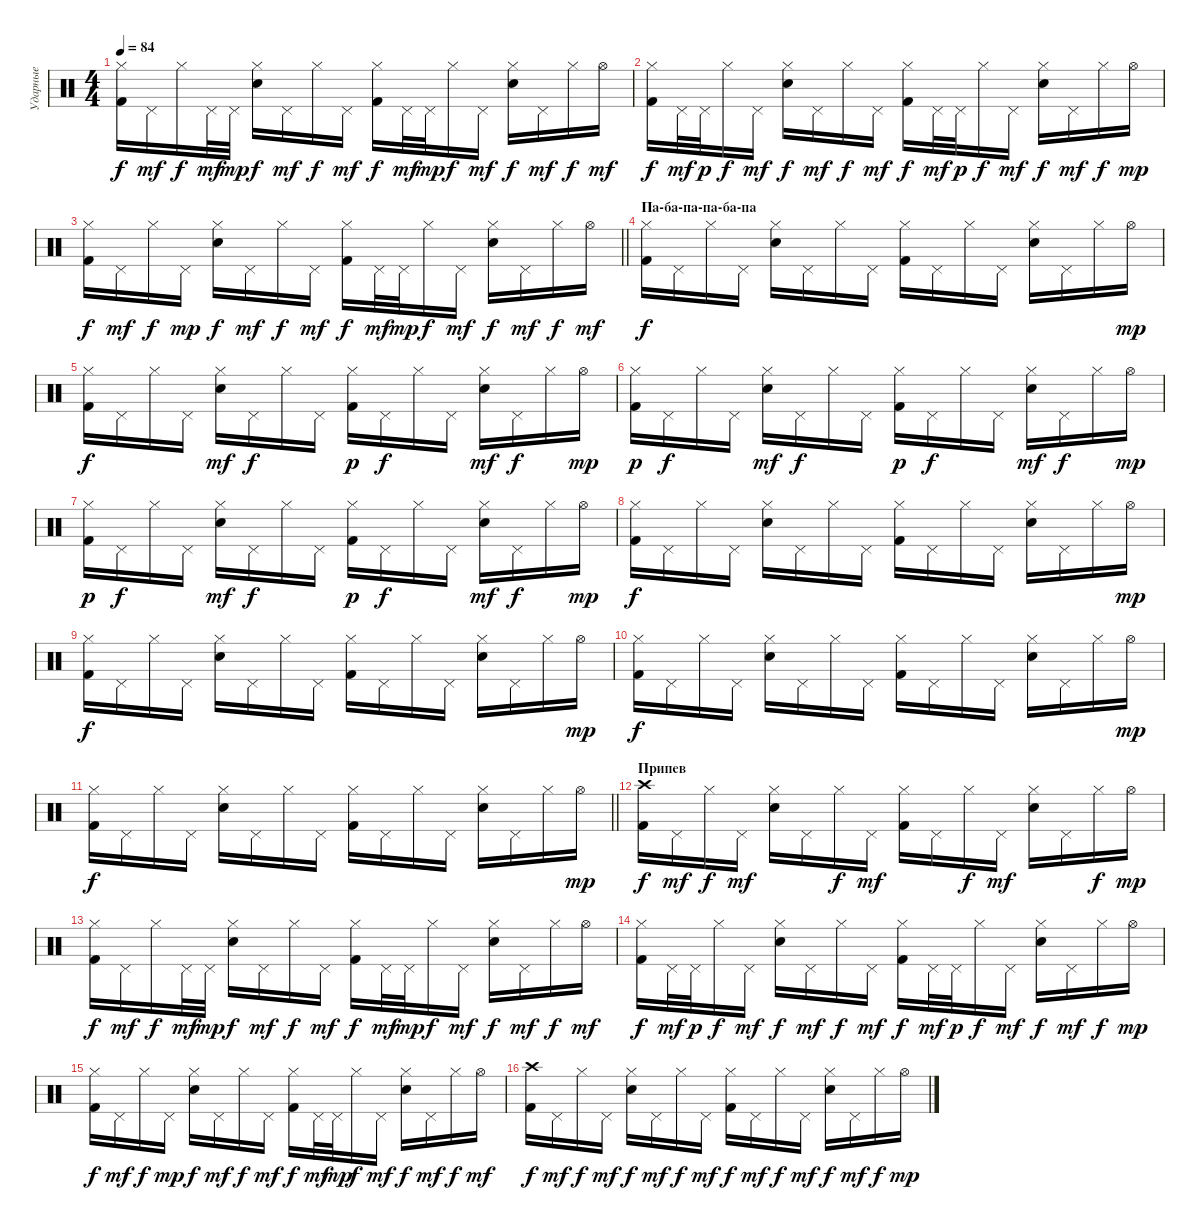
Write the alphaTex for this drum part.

\track ("Ударные" "Ударные") {instrument percussion}
\staff {score}
\articulation defaults
\ts (4 4)
\tempo 84
\clef neutral
\ks c
("Hi-Hat (closed)" "Kick (hit) 2").16{dy f} "Pedal Hi-Hat (hit)".16{dy mf} "Hi-Hat (closed)".16{dy f} "Pedal Hi-Hat (hit)".32{dy mf} "Pedal Hi-Hat (hit)".32{dy mp} ("Hi-Hat (closed)" "Electric Snare (hit)").16{dy f} "Pedal Hi-Hat (hit)".16{dy mf} "Hi-Hat (closed)".16{dy f} "Pedal Hi-Hat (hit)".16{dy mf} ("Hi-Hat (closed)" "Kick (hit) 2").16{dy f} "Pedal Hi-Hat (hit)".32{dy mf} "Pedal Hi-Hat (hit)".32{dy mp} "Hi-Hat (closed)".16{dy f} "Pedal Hi-Hat (hit)".16{dy mf} ("Hi-Hat (closed)" "Electric Snare (hit)").16{dy f} "Pedal Hi-Hat (hit)".16{dy mf} "Hi-Hat (closed)".16{dy f} "Hi-Hat (open)".16{dy mf} |
("Hi-Hat (closed)" "Kick (hit) 2").16{dy f} "Pedal Hi-Hat (hit)".32{dy mf} "Pedal Hi-Hat (hit)".32{dy p} "Hi-Hat (closed)".16{dy f} "Pedal Hi-Hat (hit)".16{dy mf} ("Hi-Hat (closed)" "Electric Snare (hit)").16{dy f} "Pedal Hi-Hat (hit)".16{dy mf} "Hi-Hat (closed)".16{dy f} "Pedal Hi-Hat (hit)".16{dy mf} ("Hi-Hat (closed)" "Kick (hit) 2").16{dy f} "Pedal Hi-Hat (hit)".32{dy mf} "Pedal Hi-Hat (hit)".32{dy p} "Hi-Hat (closed)".16{dy f} "Pedal Hi-Hat (hit)".16{dy mf} ("Hi-Hat (closed)" "Electric Snare (hit)").16{dy f} "Pedal Hi-Hat (hit)".16{dy mf} "Hi-Hat (closed)".16{dy f} "Hi-Hat (open)".16{dy mp} |
\barLineRight lightlight
("Hi-Hat (closed)" "Kick (hit) 2").16{dy f} "Pedal Hi-Hat (hit)".16{dy mf} "Hi-Hat (closed)".16{dy f} "Pedal Hi-Hat (hit)".16{dy mp} ("Hi-Hat (closed)" "Electric Snare (hit)").16{dy f} "Pedal Hi-Hat (hit)".16{dy mf} "Hi-Hat (closed)".16{dy f} "Pedal Hi-Hat (hit)".16{dy mf} ("Hi-Hat (closed)" "Kick (hit) 2").16{dy f} "Pedal Hi-Hat (hit)".32{dy mf} "Pedal Hi-Hat (hit)".32{dy mp} "Hi-Hat (closed)".16{dy f} "Pedal Hi-Hat (hit)".16{dy mf} ("Hi-Hat (closed)" "Electric Snare (hit)").16{dy f} "Pedal Hi-Hat (hit)".16{dy mf} "Hi-Hat (closed)".16{dy f} "Hi-Hat (open)".16{dy mf} |
\section ("" "Па-ба-па-па-ба-па")
("Hi-Hat (closed)" "Kick (hit) 2").16{dy f} "Pedal Hi-Hat (hit)".16 "Hi-Hat (closed)".16 "Pedal Hi-Hat (hit)".16 ("Hi-Hat (closed)" "Electric Snare (hit)").16 "Pedal Hi-Hat (hit)".16 "Hi-Hat (closed)".16 "Pedal Hi-Hat (hit)".16 ("Hi-Hat (closed)" "Kick (hit) 2").16 "Pedal Hi-Hat (hit)".16 "Hi-Hat (closed)".16 "Pedal Hi-Hat (hit)".16 ("Hi-Hat (closed)" "Electric Snare (hit)").16 "Pedal Hi-Hat (hit)".16 "Hi-Hat (closed)".16 "Hi-Hat (open)".16{dy mp} |
("Hi-Hat (closed)" "Kick (hit) 2").16{dy f} "Pedal Hi-Hat (hit)".16 "Hi-Hat (closed)".16 "Pedal Hi-Hat (hit)".16 ("Hi-Hat (closed)" "Snare (hit) 2").16{dy mf} "Pedal Hi-Hat (hit)".16{dy f} "Hi-Hat (closed)".16 "Pedal Hi-Hat (hit)".16 ("Hi-Hat (closed)" "Kick (hit) 2").16{dy p} "Pedal Hi-Hat (hit)".16{dy f} "Hi-Hat (closed)".16 "Pedal Hi-Hat (hit)".16 ("Hi-Hat (closed)" "Snare (hit) 2").16{dy mf} "Pedal Hi-Hat (hit)".16{dy f} "Hi-Hat (closed)".16 "Hi-Hat (open)".16{dy mp} |
("Hi-Hat (closed)" "Kick (hit) 2").16{dy p} "Pedal Hi-Hat (hit)".16{dy f} "Hi-Hat (closed)".16 "Pedal Hi-Hat (hit)".16 ("Hi-Hat (closed)" "Snare (hit) 2").16{dy mf} "Pedal Hi-Hat (hit)".16{dy f} "Hi-Hat (closed)".16 "Pedal Hi-Hat (hit)".16 ("Hi-Hat (closed)" "Kick (hit) 2").16{dy p} "Pedal Hi-Hat (hit)".16{dy f} "Hi-Hat (closed)".16 "Pedal Hi-Hat (hit)".16 ("Hi-Hat (closed)" "Snare (hit) 2").16{dy mf} "Pedal Hi-Hat (hit)".16{dy f} "Hi-Hat (closed)".16 "Hi-Hat (open)".16{dy mp} |
("Hi-Hat (closed)" "Kick (hit) 2").16{dy p} "Pedal Hi-Hat (hit)".16{dy f} "Hi-Hat (closed)".16 "Pedal Hi-Hat (hit)".16 ("Hi-Hat (closed)" "Snare (hit) 2").16{dy mf} "Pedal Hi-Hat (hit)".16{dy f} "Hi-Hat (closed)".16 "Pedal Hi-Hat (hit)".16 ("Hi-Hat (closed)" "Kick (hit) 2").16{dy p} "Pedal Hi-Hat (hit)".16{dy f} "Hi-Hat (closed)".16 "Pedal Hi-Hat (hit)".16 ("Hi-Hat (closed)" "Snare (hit) 2").16{dy mf} "Pedal Hi-Hat (hit)".16{dy f} "Hi-Hat (closed)".16 "Hi-Hat (open)".16{dy mp} |
("Hi-Hat (closed)" "Kick (hit) 2").16{dy f} "Pedal Hi-Hat (hit)".16 "Hi-Hat (closed)".16 "Pedal Hi-Hat (hit)".16 ("Hi-Hat (closed)" "Snare (hit) 2").16 "Pedal Hi-Hat (hit)".16 "Hi-Hat (closed)".16 "Pedal Hi-Hat (hit)".16 ("Hi-Hat (closed)" "Kick (hit) 2").16 "Pedal Hi-Hat (hit)".16 "Hi-Hat (closed)".16 "Pedal Hi-Hat (hit)".16 ("Hi-Hat (closed)" "Snare (hit) 2").16 "Pedal Hi-Hat (hit)".16 "Hi-Hat (closed)".16 "Hi-Hat (open)".16{dy mp} |
("Hi-Hat (closed)" "Kick (hit) 2").16{dy f} "Pedal Hi-Hat (hit)".16 "Hi-Hat (closed)".16 "Pedal Hi-Hat (hit)".16 ("Hi-Hat (closed)" "Snare (hit) 2").16 "Pedal Hi-Hat (hit)".16 "Hi-Hat (closed)".16 "Pedal Hi-Hat (hit)".16 ("Hi-Hat (closed)" "Kick (hit) 2").16 "Pedal Hi-Hat (hit)".16 "Hi-Hat (closed)".16 "Pedal Hi-Hat (hit)".16 ("Hi-Hat (closed)" "Snare (hit) 2").16 "Pedal Hi-Hat (hit)".16 "Hi-Hat (closed)".16 "Hi-Hat (open)".16{dy mp} |
("Hi-Hat (closed)" "Kick (hit) 2").16{dy f} "Pedal Hi-Hat (hit)".16 "Hi-Hat (closed)".16 "Pedal Hi-Hat (hit)".16 ("Hi-Hat (closed)" "Snare (hit) 2").16 "Pedal Hi-Hat (hit)".16 "Hi-Hat (closed)".16 "Pedal Hi-Hat (hit)".16 ("Hi-Hat (closed)" "Kick (hit) 2").16 "Pedal Hi-Hat (hit)".16 "Hi-Hat (closed)".16 "Pedal Hi-Hat (hit)".16 ("Hi-Hat (closed)" "Snare (hit) 2").16 "Pedal Hi-Hat (hit)".16 "Hi-Hat (closed)".16 "Hi-Hat (open)".16{dy mp} |
\barLineRight lightlight
("Hi-Hat (closed)" "Kick (hit) 2").16{dy f} "Pedal Hi-Hat (hit)".16 "Hi-Hat (closed)".16 "Pedal Hi-Hat (hit)".16 ("Hi-Hat (closed)" "Snare (hit) 2").16 "Pedal Hi-Hat (hit)".16 "Hi-Hat (closed)".16 "Pedal Hi-Hat (hit)".16 ("Hi-Hat (closed)" "Kick (hit) 2").16 "Pedal Hi-Hat (hit)".16 "Hi-Hat (closed)".16 "Pedal Hi-Hat (hit)".16 ("Hi-Hat (closed)" "Snare (hit) 2").16 "Pedal Hi-Hat (hit)".16 "Hi-Hat (closed)".16 "Hi-Hat (open)".16{dy mp} |
\section ("" "Припев")
("Crash high (hit)" "Kick (hit) 2").16{dy f} "Pedal Hi-Hat (hit)".16{dy mf} "Hi-Hat (closed)".16{dy f} "Pedal Hi-Hat (hit)".16{dy mf} ("Hi-Hat (closed)" "Electric Snare (hit)").16 "Pedal Hi-Hat (hit)".16 "Hi-Hat (closed)".16{dy f} "Pedal Hi-Hat (hit)".16{dy mf} ("Hi-Hat (closed)" "Kick (hit) 2").16 "Pedal Hi-Hat (hit)".16 "Hi-Hat (closed)".16{dy f} "Pedal Hi-Hat (hit)".16{dy mf} ("Hi-Hat (closed)" "Electric Snare (hit)").16 "Pedal Hi-Hat (hit)".16 "Hi-Hat (closed)".16{dy f} "Hi-Hat (open)".16{dy mp} |
("Hi-Hat (closed)" "Kick (hit) 2").16{dy f} "Pedal Hi-Hat (hit)".16{dy mf} "Hi-Hat (closed)".16{dy f} "Pedal Hi-Hat (hit)".32{dy mf} "Pedal Hi-Hat (hit)".32{dy mp} ("Hi-Hat (closed)" "Electric Snare (hit)").16{dy f} "Pedal Hi-Hat (hit)".16{dy mf} "Hi-Hat (closed)".16{dy f} "Pedal Hi-Hat (hit)".16{dy mf} ("Hi-Hat (closed)" "Kick (hit) 2").16{dy f} "Pedal Hi-Hat (hit)".32{dy mf} "Pedal Hi-Hat (hit)".32{dy mp} "Hi-Hat (closed)".16{dy f} "Pedal Hi-Hat (hit)".16{dy mf} ("Hi-Hat (closed)" "Electric Snare (hit)").16{dy f} "Pedal Hi-Hat (hit)".16{dy mf} "Hi-Hat (closed)".16{dy f} "Hi-Hat (open)".16{dy mf} |
("Hi-Hat (closed)" "Kick (hit) 2").16{dy f} "Pedal Hi-Hat (hit)".32{dy mf} "Pedal Hi-Hat (hit)".32{dy p} "Hi-Hat (closed)".16{dy f} "Pedal Hi-Hat (hit)".16{dy mf} ("Hi-Hat (closed)" "Electric Snare (hit)").16{dy f} "Pedal Hi-Hat (hit)".16{dy mf} "Hi-Hat (closed)".16{dy f} "Pedal Hi-Hat (hit)".16{dy mf} ("Hi-Hat (closed)" "Kick (hit) 2").16{dy f} "Pedal Hi-Hat (hit)".32{dy mf} "Pedal Hi-Hat (hit)".32{dy p} "Hi-Hat (closed)".16{dy f} "Pedal Hi-Hat (hit)".16{dy mf} ("Hi-Hat (closed)" "Electric Snare (hit)").16{dy f} "Pedal Hi-Hat (hit)".16{dy mf} "Hi-Hat (closed)".16{dy f} "Hi-Hat (open)".16{dy mp} |
("Hi-Hat (closed)" "Kick (hit) 2").16{dy f} "Pedal Hi-Hat (hit)".16{dy mf} "Hi-Hat (closed)".16{dy f} "Pedal Hi-Hat (hit)".16{dy mp} ("Hi-Hat (closed)" "Electric Snare (hit)").16{dy f} "Pedal Hi-Hat (hit)".16{dy mf} "Hi-Hat (closed)".16{dy f} "Pedal Hi-Hat (hit)".16{dy mf} ("Hi-Hat (closed)" "Kick (hit) 2").16{dy f} "Pedal Hi-Hat (hit)".32{dy mf} "Pedal Hi-Hat (hit)".32{dy mp} "Hi-Hat (closed)".16{dy f} "Pedal Hi-Hat (hit)".16{dy mf} ("Hi-Hat (closed)" "Electric Snare (hit)").16{dy f} "Pedal Hi-Hat (hit)".16{dy mf} "Hi-Hat (closed)".16{dy f} "Hi-Hat (open)".16{dy mf} |
("Crash high (hit)" "Kick (hit) 2").16{dy f} "Pedal Hi-Hat (hit)".16{dy mf} "Hi-Hat (closed)".16{dy f} "Pedal Hi-Hat (hit)".16{dy mf} ("Hi-Hat (closed)" "Electric Snare (hit)").16{dy f} "Pedal Hi-Hat (hit)".16{dy mf} "Hi-Hat (closed)".16{dy f} "Pedal Hi-Hat (hit)".16{dy mf} ("Hi-Hat (closed)" "Kick (hit) 2").16{dy f} "Pedal Hi-Hat (hit)".16{dy mf} "Hi-Hat (closed)".16{dy f} "Pedal Hi-Hat (hit)".16{dy mf} ("Hi-Hat (closed)" "Electric Snare (hit)").16{dy f} "Pedal Hi-Hat (hit)".16{dy mf} "Hi-Hat (closed)".16{dy f} "Hi-Hat (open)".16{dy mp}
